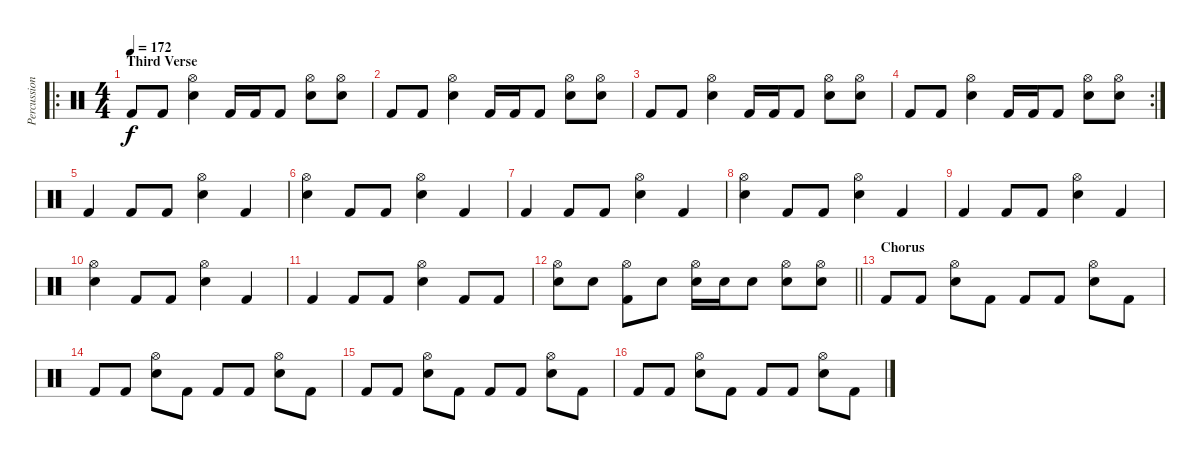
\track ("Percussion" "Percussion") {instrument percussion}
\staff {score}
\articulation defaults
\ro
\ts (4 4)
\section ("" "Third Verse")
\tempo 172
\clef neutral
\ks c "Kick (hit) 2".8{dy f} "Kick (hit) 2".8
("Hi-Hat (open)" "Electric Snare (hit)").4 "Kick (hit) 2".16 "Kick (hit) 2".16 "Kick (hit) 2".8 ("Hi-Hat (open)" "Electric Snare (hit)").8 ("Hi-Hat (open)" "Electric Snare (hit)").8 |
"Kick (hit) 2".8 "Kick (hit) 2".8 ("Hi-Hat (open)" "Electric Snare (hit)").4 "Kick (hit) 2".16 "Kick (hit) 2".16 "Kick (hit) 2".8 ("Hi-Hat (open)" "Electric Snare (hit)").8 ("Hi-Hat (open)" "Electric Snare (hit)").8 |
"Kick (hit) 2".8 "Kick (hit) 2".8 ("Hi-Hat (open)" "Electric Snare (hit)").4 "Kick (hit) 2".16 "Kick (hit) 2".16 "Kick (hit) 2".8 ("Hi-Hat (open)" "Electric Snare (hit)").8 ("Hi-Hat (open)" "Electric Snare (hit)").8 |
\rc 2 "Kick (hit) 2".8 "Kick (hit) 2".8
("Hi-Hat (open)" "Electric Snare (hit)").4 "Kick (hit) 2".16 "Kick (hit) 2".16 "Kick (hit) 2".8 ("Hi-Hat (open)" "Electric Snare (hit)").8 ("Hi-Hat (open)" "Electric Snare (hit)").8 |
"Kick (hit) 2".4 "Kick (hit) 2".8 "Kick (hit) 2".8 ("Hi-Hat (open)" "Electric Snare (hit)").4 "Kick (hit) 2".4 |
("Hi-Hat (open)" "Electric Snare (hit)").4 "Kick (hit) 2".8 "Kick (hit) 2".8 ("Hi-Hat (open)" "Electric Snare (hit)").4 "Kick (hit) 2".4 |
"Kick (hit) 2".4 "Kick (hit) 2".8 "Kick (hit) 2".8 ("Hi-Hat (open)" "Electric Snare (hit)").4 "Kick (hit) 2".4 |
("Hi-Hat (open)" "Electric Snare (hit)").4 "Kick (hit) 2".8 "Kick (hit) 2".8 ("Hi-Hat (open)" "Electric Snare (hit)").4 "Kick (hit) 2".4 |
"Kick (hit) 2".4 "Kick (hit) 2".8 "Kick (hit) 2".8 ("Hi-Hat (open)" "Electric Snare (hit)").4 "Kick (hit) 2".4 |
("Hi-Hat (open)" "Electric Snare (hit)").4 "Kick (hit) 2".8 "Kick (hit) 2".8 ("Hi-Hat (open)" "Electric Snare (hit)").4 "Kick (hit) 2".4 |
"Kick (hit) 2".4 "Kick (hit) 2".8 "Kick (hit) 2".8 ("Hi-Hat (open)" "Electric Snare (hit)").4 "Kick (hit) 2".8 "Kick (hit) 2".8 |
\barLineRight lightlight
("Hi-Hat (open)" "Electric Snare (hit)").8 "Electric Snare (hit)".8 ("Hi-Hat (open)" "Kick (hit) 2").8 "Electric Snare (hit)".8 ("Hi-Hat (open)" "Electric Snare (hit)").16 "Electric Snare (hit)".16 "Electric Snare (hit)".8 ("Hi-Hat (open)" "Electric Snare (hit)").8 ("Hi-Hat (open)" "Electric Snare (hit)").8 |
\section ("" "Chorus")
"Kick (hit) 2".8 "Kick (hit) 2".8 ("Hi-Hat (open)" "Electric Snare (hit)").8 "Kick (hit) 2".8 "Kick (hit) 2".8 "Kick (hit) 2".8 ("Hi-Hat (open)" "Electric Snare (hit)").8 "Kick (hit) 2".8 |
"Kick (hit) 2".8 "Kick (hit) 2".8 ("Hi-Hat (open)" "Electric Snare (hit)").8 "Kick (hit) 2".8 "Kick (hit) 2".8 "Kick (hit) 2".8 ("Hi-Hat (open)" "Electric Snare (hit)").8 "Kick (hit) 2".8 |
"Kick (hit) 2".8 "Kick (hit) 2".8 ("Hi-Hat (open)" "Electric Snare (hit)").8 "Kick (hit) 2".8 "Kick (hit) 2".8 "Kick (hit) 2".8 ("Hi-Hat (open)" "Electric Snare (hit)").8 "Kick (hit) 2".8 |
"Kick (hit) 2".8 "Kick (hit) 2".8 ("Hi-Hat (open)" "Electric Snare (hit)").8 "Kick (hit) 2".8 "Kick (hit) 2".8 "Kick (hit) 2".8 ("Hi-Hat (open)" "Electric Snare (hit)").8 "Kick (hit) 2".8
